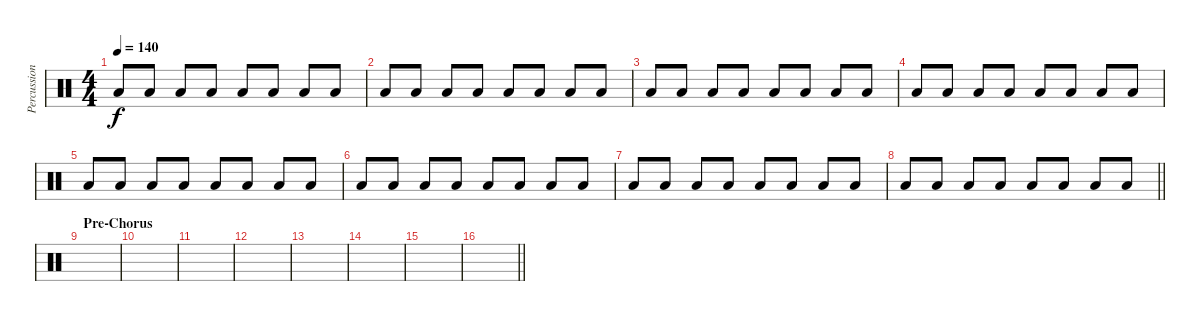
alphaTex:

\track ("Percussion (LP III)" "Percussion") {instrument percussion}
\staff {score}
\articulation defaults
\ts (4 4)
\tempo 140
\clef neutral
\ks c "Low Tom (hit)".8{dy f} "Low Tom (hit)".8 "Low Tom (hit)".8 "Low Tom (hit)".8 "Low Tom (hit)".8 "Low Tom (hit)".8 "Low Tom (hit)".8 "Low Tom (hit)".8
|
"Low Tom (hit)".8 "Low Tom (hit)".8 "Low Tom (hit)".8 "Low Tom (hit)".8 "Low Tom (hit)".8 "Low Tom (hit)".8 "Low Tom (hit)".8 "Low Tom (hit)".8 |
"Low Tom (hit)".8 "Low Tom (hit)".8 "Low Tom (hit)".8 "Low Tom (hit)".8 "Low Tom (hit)".8 "Low Tom (hit)".8 "Low Tom (hit)".8 "Low Tom (hit)".8 |
"Low Tom (hit)".8 "Low Tom (hit)".8 "Low Tom (hit)".8 "Low Tom (hit)".8 "Low Tom (hit)".8 "Low Tom (hit)".8 "Low Tom (hit)".8 "Low Tom (hit)".8 |
"Low Tom (hit)".8 "Low Tom (hit)".8 "Low Tom (hit)".8 "Low Tom (hit)".8 "Low Tom (hit)".8 "Low Tom (hit)".8 "Low Tom (hit)".8 "Low Tom (hit)".8 |
"Low Tom (hit)".8 "Low Tom (hit)".8 "Low Tom (hit)".8 "Low Tom (hit)".8 "Low Tom (hit)".8 "Low Tom (hit)".8 "Low Tom (hit)".8 "Low Tom (hit)".8 |
"Low Tom (hit)".8 "Low Tom (hit)".8 "Low Tom (hit)".8 "Low Tom (hit)".8 "Low Tom (hit)".8 "Low Tom (hit)".8 "Low Tom (hit)".8 "Low Tom (hit)".8 |
\barLineRight lightlight "Low Tom (hit)".8 "Low Tom (hit)".8 "Low Tom (hit)".8 "Low Tom (hit)".8 "Low Tom (hit)".8 "Low Tom (hit)".8 "Low Tom (hit)".8 "Low Tom (hit)".8
|
\section ("" "Pre-Chorus")
|
|
|
|
|
|
|
\barLineRight lightlight
